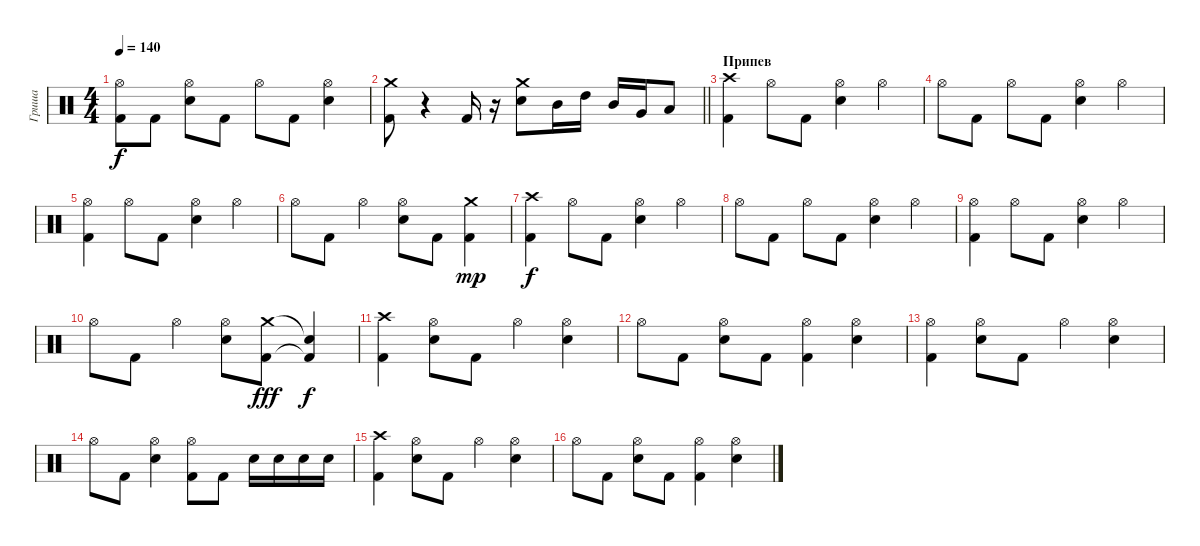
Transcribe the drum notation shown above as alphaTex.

\track ("Гриша" "Гриша") {instrument percussion}
\staff {score}
\articulation defaults
\ts (4 4)
\tempo 140
\clef neutral
\ks c
("Hi-Hat (open)" "Kick (hit) 2").8{dy f} "Kick (hit) 2".8 ("Hi-Hat (open)" "Electric Snare (hit)").8 "Kick (hit) 2".8 "Hi-Hat (open)".8 "Kick (hit) 2".8 ("Hi-Hat (open)" "Electric Snare (hit)").4 |
\barLineRight lightlight
("Crash medium (hit)" "Kick (hit) 2").8 r.4 "Kick (hit) 2".16 r.16 ("Crash medium (hit)" "Electric Snare (hit)").8 "Mid Tom (hit)".16 "High Tom (hit)".16 "Mid Tom (hit)".16 "Very Low Tom (hit)".16 "Low Tom (hit)".8 |
\section ("" "Припев")
("Crash high (hit)" "Kick (hit) 2").4 "Hi-Hat (open)".8 "Kick (hit) 2".8 ("Hi-Hat (open)" "Electric Snare (hit)").4 "Hi-Hat (open)".4 |
"Hi-Hat (open)".8 "Kick (hit) 2".8 "Hi-Hat (open)".8 "Kick (hit) 2".8 ("Hi-Hat (open)" "Electric Snare (hit)").4 "Hi-Hat (open)".4 |
("Hi-Hat (open)" "Kick (hit) 2").4 "Hi-Hat (open)".8 "Kick (hit) 2".8 ("Hi-Hat (open)" "Electric Snare (hit)").4 "Hi-Hat (open)".4 |
"Hi-Hat (open)".8 "Kick (hit) 2".8 "Hi-Hat (open)".4 ("Hi-Hat (open)" "Electric Snare (hit)").8 "Kick (hit) 2".8 ("Crash medium (hit)" "Kick (hit) 2").4{dy mp} |
("Crash high (hit)" "Kick (hit) 2").4{dy f} "Hi-Hat (open)".8 "Kick (hit) 2".8 ("Hi-Hat (open)" "Electric Snare (hit)").4 "Hi-Hat (open)".4 |
"Hi-Hat (open)".8 "Kick (hit) 2".8 "Hi-Hat (open)".8 "Kick (hit) 2".8 ("Hi-Hat (open)" "Electric Snare (hit)").4 "Hi-Hat (open)".4 |
("Hi-Hat (open)" "Kick (hit) 2").4 "Hi-Hat (open)".8 "Kick (hit) 2".8 ("Hi-Hat (open)" "Electric Snare (hit)").4 "Hi-Hat (open)".4 |
"Hi-Hat (open)".8 "Kick (hit) 2".8 "Hi-Hat (open)".4 ("Hi-Hat (open)" "Electric Snare (hit)").8 ("Crash medium (hit)" "Kick (hit) 2").8{dy fff} ("Snare (hit)"{t} "Kick (hit) 2"{t}).4{dy f} |
("Crash high (hit)" "Kick (hit) 2").4 ("Hi-Hat (open)" "Electric Snare (hit)").8 "Kick (hit) 2".8 "Hi-Hat (open)".4 ("Hi-Hat (open)" "Electric Snare (hit)").4 |
"Hi-Hat (open)".8 "Kick (hit) 2".8 ("Hi-Hat (open)" "Electric Snare (hit)").8 "Kick (hit) 2".8 ("Hi-Hat (open)" "Kick (hit) 2").4 ("Hi-Hat (open)" "Electric Snare (hit)").4 |
("Hi-Hat (open)" "Kick (hit) 2").4 ("Hi-Hat (open)" "Electric Snare (hit)").8 "Kick (hit) 2".8 "Hi-Hat (open)".4 ("Hi-Hat (open)" "Electric Snare (hit)").4 |
"Hi-Hat (open)".8 "Kick (hit) 2".8 ("Hi-Hat (open)" "Electric Snare (hit)").4 ("Hi-Hat (open)" "Kick (hit) 2").8 "Kick (hit) 2".8 "Electric Snare (hit)".16 "Electric Snare (hit)".16 "Electric Snare (hit)".16 "Electric Snare (hit)".16 |
("Crash high (hit)" "Kick (hit) 2").4 ("Hi-Hat (open)" "Electric Snare (hit)").8 "Kick (hit) 2".8 "Hi-Hat (open)".4 ("Hi-Hat (open)" "Electric Snare (hit)").4 |
"Hi-Hat (open)".8 "Kick (hit) 2".8 ("Hi-Hat (open)" "Electric Snare (hit)").8 "Kick (hit) 2".8 ("Hi-Hat (open)" "Kick (hit) 2").4 ("Hi-Hat (open)" "Electric Snare (hit)").4
